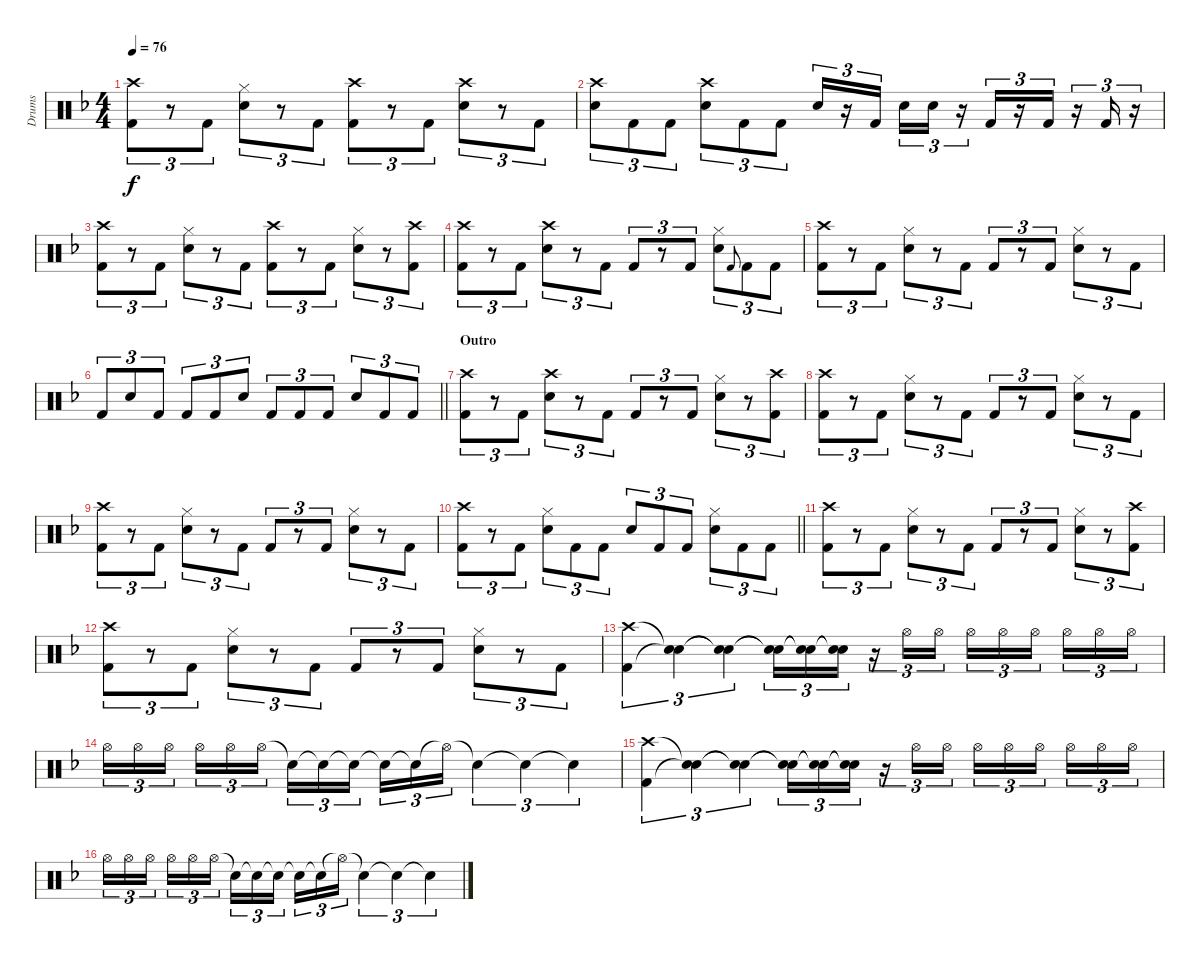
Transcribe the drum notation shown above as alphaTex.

\track ("Drums" "Drums") {instrument percussion}
\staff {score}
\articulation defaults
\ts (4 4)
\tempo 76
\clef neutral
\ks f
("Crash high (hit)" "Kick (hit) 2").8{tu (3 2) dy f} r.8{tu (3 2)} "Kick (hit) 2".8{tu (3 2)} ("Hi-Hat (closed)" "Electric Snare (hit)").8{tu (3 2)} r.8{tu (3 2)} "Kick (hit) 2".8{tu (3 2)} ("Crash high (hit)" "Kick (hit) 2").8{tu (3 2)} r.8{tu (3 2)} "Kick (hit) 2".8{tu (3 2)} ("Crash high (hit)" "Electric Snare (hit)").8{tu (3 2)} r.8{tu (3 2)} "Kick (hit) 2".8{tu (3 2)} |
("Crash high (hit)" "Electric Snare (hit)").8{tu (3 2)} "Kick (hit) 2".8{tu (3 2)} "Kick (hit) 2".8{tu (3 2)} ("Crash high (hit)" "Electric Snare (hit)").8{tu (3 2)} "Kick (hit) 2".8{tu (3 2)} "Kick (hit) 2".8{tu (3 2)} "Electric Snare (hit)".16{tu (3 2)} r.16{tu (3 2)} "Kick (hit) 2".16{tu (3 2) beam splitsecondary} "Electric Snare (hit)".16{tu (3 2)} "Electric Snare (hit)".16{tu (3 2)} r.16{tu (3 2)} "Kick (hit) 2".16{tu (3 2)} r.16{tu (3 2)} "Kick (hit) 2".16{tu (3 2)} r.16{tu (3 2)} "Kick (hit) 2".16{tu (3 2)} r.16{tu (3 2)} |
("Crash high (hit)" "Kick (hit) 2").8{tu (3 2)} r.8{tu (3 2)} "Kick (hit) 2".8{tu (3 2)} ("Hi-Hat (closed)" "Electric Snare (hit)").8{tu (3 2)} r.8{tu (3 2)} "Kick (hit) 2".8{tu (3 2)} ("Crash high (hit)" "Kick (hit) 2").8{tu (3 2)} r.8{tu (3 2)} "Kick (hit) 2".8{tu (3 2)} ("Hi-Hat (closed)" "Electric Snare (hit)").8{tu (3 2)} r.8{tu (3 2)} ("Crash high (hit)" "Kick (hit) 2").8{tu (3 2)} |
("Crash high (hit)" "Kick (hit) 2").8{tu (3 2)} r.8{tu (3 2)} "Kick (hit) 2".8{tu (3 2)} ("Crash high (hit)" "Electric Snare (hit)").8{tu (3 2)} r.8{tu (3 2)} "Kick (hit) 2".8{tu (3 2)} "Kick (hit) 2".8{tu (3 2)} r.8{tu (3 2)} "Kick (hit) 2".8{tu (3 2)} ("Hi-Hat (closed)" "Electric Snare (hit)").8{tu (3 2)} "Kick (hit) 2".8{gr onbeat} "Kick (hit) 2".8{tu (3 2)} "Kick (hit) 2".8{tu (3 2)} |
("Crash high (hit)" "Kick (hit) 2").8{tu (3 2)} r.8{tu (3 2)} "Kick (hit) 2".8{tu (3 2)} ("Hi-Hat (closed)" "Electric Snare (hit)").8{tu (3 2)} r.8{tu (3 2)} "Kick (hit) 2".8{tu (3 2)} "Kick (hit) 2".8{tu (3 2)} r.8{tu (3 2)} "Kick (hit) 2".8{tu (3 2)} ("Hi-Hat (closed)" "Electric Snare (hit)").8{tu (3 2)} r.8{tu (3 2)} "Kick (hit) 2".8{tu (3 2)} |
\barLineRight lightlight "Kick (hit) 2".8{tu (3 2)} "Electric Snare (hit)".8{tu (3 2)} "Kick (hit) 2".8{tu (3 2)} "Kick (hit) 2".8{tu (3 2)} "Kick (hit) 2".8{tu (3 2)} "Electric Snare (hit)".8{tu (3 2)} "Kick (hit) 2".8{tu (3 2)} "Kick (hit) 2".8{tu (3 2)} "Kick (hit) 2".8{tu (3 2)} "Electric Snare (hit)".8{tu (3 2)} "Kick (hit) 2".8{tu (3 2)} "Kick (hit) 2".8{tu (3 2)}
|
\section ("" "Outro")
("Crash high (hit)" "Kick (hit) 2").8{tu (3 2)} r.8{tu (3 2)} "Kick (hit) 2".8{tu (3 2)} ("Crash high (hit)" "Electric Snare (hit)").8{tu (3 2)} r.8{tu (3 2)} "Kick (hit) 2".8{tu (3 2)} "Kick (hit) 2".8{tu (3 2)} r.8{tu (3 2)} "Kick (hit) 2".8{tu (3 2)} ("Hi-Hat (closed)" "Electric Snare (hit)").8{tu (3 2)} r.8{tu (3 2)} ("Crash high (hit)" "Kick (hit) 2").8{tu (3 2)} |
("Crash high (hit)" "Kick (hit) 2").8{tu (3 2)} r.8{tu (3 2)} "Kick (hit) 2".8{tu (3 2)} ("Hi-Hat (closed)" "Electric Snare (hit)").8{tu (3 2)} r.8{tu (3 2)} "Kick (hit) 2".8{tu (3 2)} "Kick (hit) 2".8{tu (3 2)} r.8{tu (3 2)} "Kick (hit) 2".8{tu (3 2)} ("Hi-Hat (closed)" "Electric Snare (hit)").8{tu (3 2)} r.8{tu (3 2)} "Kick (hit) 2".8{tu (3 2)} |
("Crash high (hit)" "Kick (hit) 2").8{tu (3 2)} r.8{tu (3 2)} "Kick (hit) 2".8{tu (3 2)} ("Hi-Hat (closed)" "Electric Snare (hit)").8{tu (3 2)} r.8{tu (3 2)} "Kick (hit) 2".8{tu (3 2)} "Kick (hit) 2".8{tu (3 2)} r.8{tu (3 2)} "Kick (hit) 2".8{tu (3 2)} ("Hi-Hat (closed)" "Electric Snare (hit)").8{tu (3 2)} r.8{tu (3 2)} "Kick (hit) 2".8{tu (3 2)} |
\barLineRight lightlight
("Crash high (hit)" "Kick (hit) 2").8{tu (3 2)} r.8{tu (3 2)} "Kick (hit) 2".8{tu (3 2)} ("Hi-Hat (closed)" "Electric Snare (hit)").8{tu (3 2)} "Kick (hit) 2".8{tu (3 2)} "Kick (hit) 2".8{tu (3 2)} "Electric Snare (hit)".8{tu (3 2)} "Kick (hit) 2".8{tu (3 2)} "Kick (hit) 2".8{tu (3 2)} ("Hi-Hat (closed)" "Electric Snare (hit)").8{tu (3 2)} "Kick (hit) 2".8{tu (3 2)} "Kick (hit) 2".8{tu (3 2)} |
("Crash high (hit)" "Kick (hit) 2").8{tu (3 2)} r.8{tu (3 2)} "Kick (hit) 2".8{tu (3 2)} ("Hi-Hat (closed)" "Electric Snare (hit)").8{tu (3 2)} r.8{tu (3 2)} "Kick (hit) 2".8{tu (3 2)} "Kick (hit) 2".8{tu (3 2)} r.8{tu (3 2)} "Kick (hit) 2".8{tu (3 2)} ("Hi-Hat (closed)" "Electric Snare (hit)").8{tu (3 2)} r.8{tu (3 2)} ("Crash high (hit)" "Kick (hit) 2").8{tu (3 2)} |
("Crash high (hit)" "Kick (hit) 2").8{tu (3 2)} r.8{tu (3 2)} "Kick (hit) 2".8{tu (3 2)} ("Hi-Hat (closed)" "Electric Snare (hit)").8{tu (3 2)} r.8{tu (3 2)} "Kick (hit) 2".8{tu (3 2)} "Kick (hit) 2".8{tu (3 2)} r.8{tu (3 2)} "Kick (hit) 2".8{tu (3 2)} ("Hi-Hat (closed)" "Electric Snare (hit)").8{tu (3 2)} r.8{tu (3 2)} "Kick (hit) 2".8{tu (3 2)} |
("Crash high (hit)" "Kick (hit) 2").4{tu (3 2)} ("Snare (hit)"{t} "Snare (hit)"{t}).4{tu (3 2)} ("Snare (hit)"{t} "Snare (hit)"{t}).4{tu (3 2)} ("Snare (hit)"{t} "Snare (hit)"{t}).16{tu (3 2)} ("Snare (hit)"{t} "Snare (hit)"{t}).16{tu (3 2)} ("Snare (hit)"{t} "Snare (hit)"{t}).16{tu (3 2)} r.16{tu (3 2) volume 0} "Hi-Hat (open)".16{tu (3 2) volume 6} "Hi-Hat (open)".16{tu (3 2)} "Hi-Hat (open)".16{tu (3 2)} "Hi-Hat (open)".16{tu (3 2)} "Hi-Hat (open)".16{tu (3 2) beam splitsecondary} "Hi-Hat (open)".16{tu (3 2)} "Hi-Hat (open)".16{tu (3 2)} "Hi-Hat (open)".16{tu (3 2)} |
"Hi-Hat (open)".16{tu (3 2)} "Hi-Hat (open)".16{tu (3 2)} "Hi-Hat (open)".16{tu (3 2) beam splitsecondary} "Hi-Hat (open)".16{tu (3 2)} "Hi-Hat (open)".16{tu (3 2)} "Hi-Hat (open)".16{tu (3 2)} "Snare (hit)"{t}.16{tu (3 2)} "Snare (hit)"{t}.16{tu (3 2)} "Snare (hit)"{t}.16{tu (3 2) beam splitsecondary} "Snare (hit)"{t}.16{tu (3 2)} "Snare (hit)"{t}.16{tu (3 2)} "Hi-Hat (open)"{t}.16{tu (3 2)} "Snare (hit)"{t}.4{tu (3 2)} "Snare (hit)"{t}.4{tu (3 2)} "Snare (hit)"{t}.4{tu (3 2)} |
("Crash high (hit)" "Kick (hit) 2").4{tu (3 2)} ("Snare (hit)"{t} "Snare (hit)"{t}).4{tu (3 2)} ("Snare (hit)"{t} "Snare (hit)"{t}).4{tu (3 2)} ("Snare (hit)"{t} "Snare (hit)"{t}).16{tu (3 2)} ("Snare (hit)"{t} "Snare (hit)"{t}).16{tu (3 2)} ("Snare (hit)"{t} "Snare (hit)"{t}).16{tu (3 2)} r.16{tu (3 2) volume 0} "Hi-Hat (open)".16{tu (3 2) volume 6} "Hi-Hat (open)".16{tu (3 2)} "Hi-Hat (open)".16{tu (3 2)} "Hi-Hat (open)".16{tu (3 2)} "Hi-Hat (open)".16{tu (3 2) beam splitsecondary} "Hi-Hat (open)".16{tu (3 2)} "Hi-Hat (open)".16{tu (3 2)} "Hi-Hat (open)".16{tu (3 2)} |
"Hi-Hat (open)".16{tu (3 2)} "Hi-Hat (open)".16{tu (3 2)} "Hi-Hat (open)".16{tu (3 2) beam splitsecondary} "Hi-Hat (open)".16{tu (3 2)} "Hi-Hat (open)".16{tu (3 2)} "Hi-Hat (open)".16{tu (3 2)} "Snare (hit)"{t}.16{tu (3 2)} "Snare (hit)"{t}.16{tu (3 2)} "Snare (hit)"{t}.16{tu (3 2) beam splitsecondary} "Snare (hit)"{t}.16{tu (3 2)} "Snare (hit)"{t}.16{tu (3 2)} "Hi-Hat (open)"{t}.16{tu (3 2)} "Snare (hit)"{t}.4{tu (3 2)} "Snare (hit)"{t}.4{tu (3 2)} "Snare (hit)"{t}.4{tu (3 2)}
